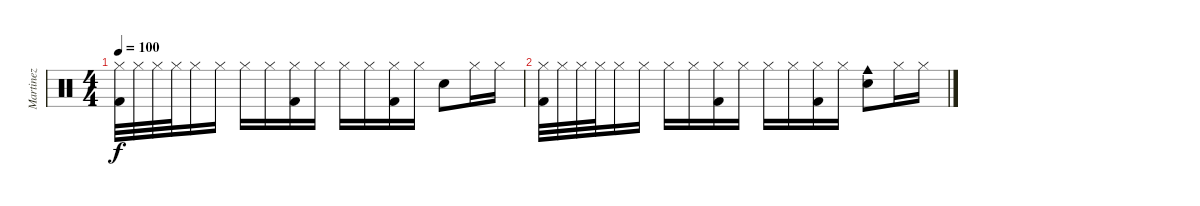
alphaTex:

\track ("Martinez" "Martinez") {instrument percussion}
\staff {score}
\articulation defaults
\ts (4 4)
\tempo 100
\clef neutral
\ks c
("Hi-Hat (closed)" "Kick (hit) 2").32{dy f} "Hi-Hat (closed)".32 "Hi-Hat (closed)".32 "Hi-Hat (closed)".32 "Hi-Hat (closed)".16 "Hi-Hat (closed)".16 "Hi-Hat (closed)".16 "Hi-Hat (closed)".16 ("Hi-Hat (closed)" "Kick (hit) 2").16 "Hi-Hat (closed)".16 "Hi-Hat (closed)".16 "Hi-Hat (closed)".16 ("Hi-Hat (closed)" "Kick (hit) 2").16 "Hi-Hat (closed)".16 "Snare (hit) 2".8 "Hi-Hat (closed)".16 "Hi-Hat (closed)".16 |
("Hi-Hat (closed)" "Kick (hit) 2").32 "Hi-Hat (closed)".32 "Hi-Hat (closed)".32 "Hi-Hat (closed)".32 "Hi-Hat (closed)".16 "Hi-Hat (closed)".16 "Hi-Hat (closed)".16 "Hi-Hat (closed)".16 ("Hi-Hat (closed)" "Kick (hit) 2").16 "Hi-Hat (closed)".16 "Hi-Hat (closed)".16 "Hi-Hat (closed)".16 ("Hi-Hat (closed)" "Kick (hit) 2").16 "Hi-Hat (closed)".16 ("Cowbell medium (hit)" "Snare (hit) 2").8 "Hi-Hat (closed)".16 "Hi-Hat (closed)".16
